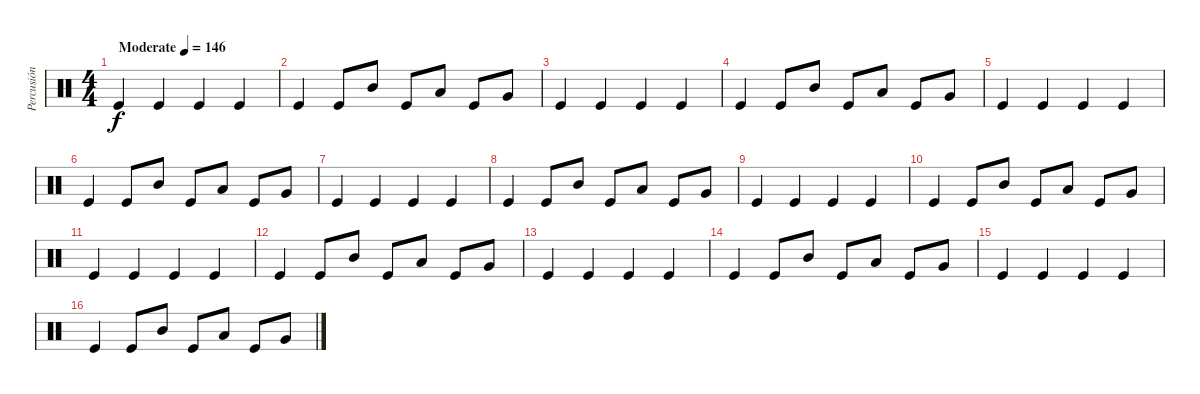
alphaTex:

\track ("Percusión" "Percusión") {instrument percussion}
\staff {score}
\articulation defaults
\ts (4 4)
\tempo (146 "Moderate")
\clef neutral
\ks c "Kick (hit)".4{dy f} "Kick (hit)".4 "Kick (hit)".4 "Kick (hit)".4
|
"Kick (hit)".4 "Kick (hit)".8 "Mid Tom (hit)".8 "Kick (hit)".8 "Low Tom (hit)".8 "Kick (hit)".8 "Very Low Tom (hit)".8 |
"Kick (hit)".4 "Kick (hit)".4 "Kick (hit)".4 "Kick (hit)".4 |
"Kick (hit)".4 "Kick (hit)".8 "Mid Tom (hit)".8 "Kick (hit)".8 "Low Tom (hit)".8 "Kick (hit)".8 "Very Low Tom (hit)".8 |
"Kick (hit)".4 "Kick (hit)".4 "Kick (hit)".4 "Kick (hit)".4 |
"Kick (hit)".4 "Kick (hit)".8 "Mid Tom (hit)".8 "Kick (hit)".8 "Low Tom (hit)".8 "Kick (hit)".8 "Very Low Tom (hit)".8 |
"Kick (hit)".4 "Kick (hit)".4 "Kick (hit)".4 "Kick (hit)".4 |
"Kick (hit)".4 "Kick (hit)".8 "Mid Tom (hit)".8 "Kick (hit)".8 "Low Tom (hit)".8 "Kick (hit)".8 "Very Low Tom (hit)".8 |
"Kick (hit)".4 "Kick (hit)".4 "Kick (hit)".4 "Kick (hit)".4 |
"Kick (hit)".4 "Kick (hit)".8 "Mid Tom (hit)".8 "Kick (hit)".8 "Low Tom (hit)".8 "Kick (hit)".8 "Very Low Tom (hit)".8 |
"Kick (hit)".4 "Kick (hit)".4 "Kick (hit)".4 "Kick (hit)".4 |
"Kick (hit)".4 "Kick (hit)".8 "Mid Tom (hit)".8 "Kick (hit)".8 "Low Tom (hit)".8 "Kick (hit)".8 "Very Low Tom (hit)".8 |
"Kick (hit)".4 "Kick (hit)".4 "Kick (hit)".4 "Kick (hit)".4 |
"Kick (hit)".4 "Kick (hit)".8 "Mid Tom (hit)".8 "Kick (hit)".8 "Low Tom (hit)".8 "Kick (hit)".8 "Very Low Tom (hit)".8 |
"Kick (hit)".4 "Kick (hit)".4 "Kick (hit)".4 "Kick (hit)".4 |
"Kick (hit)".4 "Kick (hit)".8 "Mid Tom (hit)".8 "Kick (hit)".8 "Low Tom (hit)".8 "Kick (hit)".8 "Very Low Tom (hit)".8
